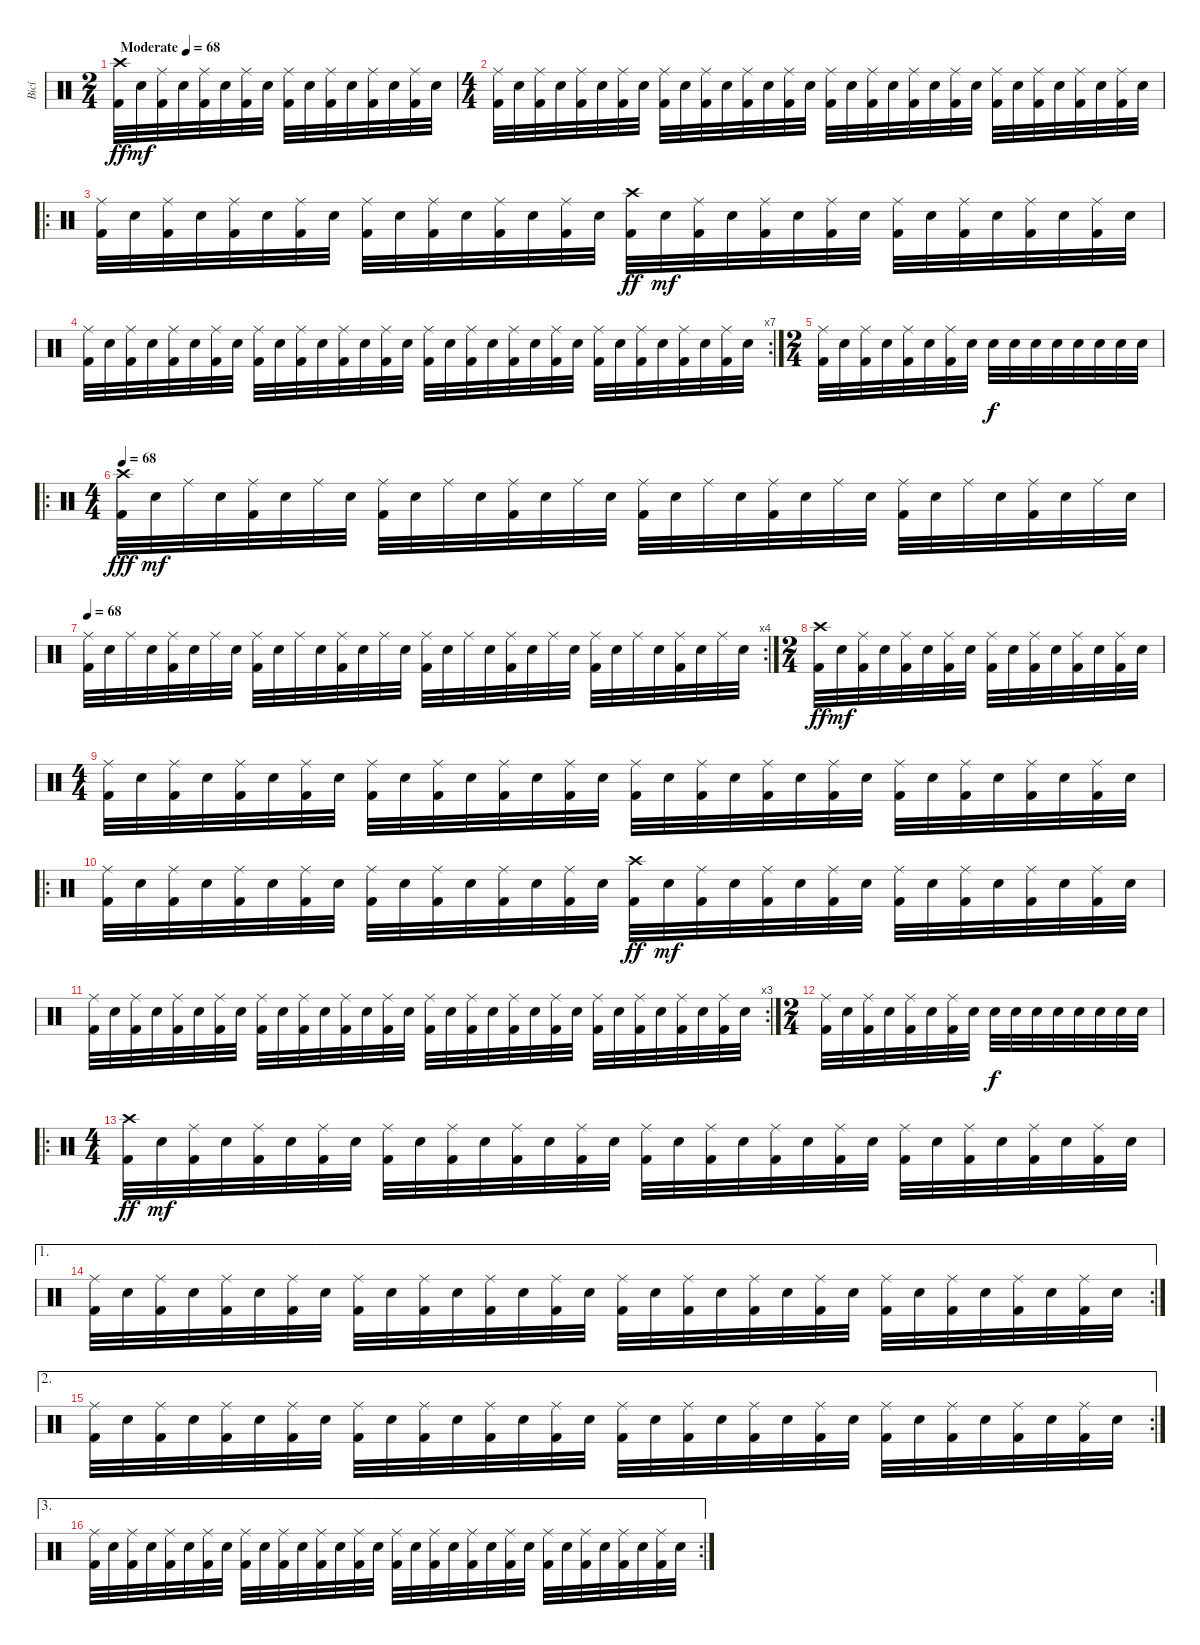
\track ("Bicí" "Bicí") {instrument percussion}
\staff {score}
\articulation defaults
\ts (2 4)
\tempo (68 "Moderate")
\clef neutral
\ks c
("Kick (hit) 2" "Crash high (hit)").32{dy ff} "Electric Snare (hit)".32{dy mf} ("Kick (hit) 2" "Ride (middle)").32 "Electric Snare (hit)".32 ("Kick (hit) 2" "Ride (middle)").32 "Electric Snare (hit)".32 ("Kick (hit) 2" "Ride (middle)").32 "Electric Snare (hit)".32 ("Kick (hit) 2" "Ride (middle)").32 "Electric Snare (hit)".32 ("Kick (hit) 2" "Ride (middle)").32 "Electric Snare (hit)".32 ("Kick (hit) 2" "Ride (middle)").32 "Electric Snare (hit)".32 ("Kick (hit) 2" "Ride (middle)").32 "Electric Snare (hit)".32 |
\ts (4 4)
("Kick (hit) 2" "Ride (middle)").32 "Electric Snare (hit)".32 ("Kick (hit) 2" "Ride (middle)").32 "Electric Snare (hit)".32 ("Kick (hit) 2" "Ride (middle)").32 "Electric Snare (hit)".32 ("Kick (hit) 2" "Ride (middle)").32 "Electric Snare (hit)".32 ("Kick (hit) 2" "Ride (middle)").32 "Electric Snare (hit)".32 ("Kick (hit) 2" "Ride (middle)").32 "Electric Snare (hit)".32 ("Kick (hit) 2" "Ride (middle)").32 "Electric Snare (hit)".32 ("Kick (hit) 2" "Ride (middle)").32 "Electric Snare (hit)".32 ("Kick (hit) 2" "Ride (middle)").32 "Electric Snare (hit)".32 ("Kick (hit) 2" "Ride (middle)").32 "Electric Snare (hit)".32 ("Kick (hit) 2" "Ride (middle)").32 "Electric Snare (hit)".32 ("Kick (hit) 2" "Ride (middle)").32 "Electric Snare (hit)".32 ("Kick (hit) 2" "Ride (middle)").32 "Electric Snare (hit)".32 ("Kick (hit) 2" "Ride (middle)").32 "Electric Snare (hit)".32 ("Kick (hit) 2" "Ride (middle)").32 "Electric Snare (hit)".32 ("Kick (hit) 2" "Ride (middle)").32 "Electric Snare (hit)".32 |
\ro
("Kick (hit) 2" "Ride (middle)").32 "Electric Snare (hit)".32 ("Kick (hit) 2" "Ride (middle)").32 "Electric Snare (hit)".32 ("Kick (hit) 2" "Ride (middle)").32 "Electric Snare (hit)".32 ("Kick (hit) 2" "Ride (middle)").32 "Electric Snare (hit)".32 ("Kick (hit) 2" "Ride (middle)").32 "Electric Snare (hit)".32 ("Kick (hit) 2" "Ride (middle)").32 "Electric Snare (hit)".32 ("Kick (hit) 2" "Ride (middle)").32 "Electric Snare (hit)".32 ("Kick (hit) 2" "Ride (middle)").32 "Electric Snare (hit)".32 ("Kick (hit) 2" "Crash high (hit)").32{dy ff} "Electric Snare (hit)".32{dy mf} ("Kick (hit) 2" "Ride (middle)").32 "Electric Snare (hit)".32 ("Kick (hit) 2" "Ride (middle)").32 "Electric Snare (hit)".32 ("Kick (hit) 2" "Ride (middle)").32 "Electric Snare (hit)".32 ("Kick (hit) 2" "Ride (middle)").32 "Electric Snare (hit)".32 ("Kick (hit) 2" "Ride (middle)").32 "Electric Snare (hit)".32 ("Kick (hit) 2" "Ride (middle)").32 "Electric Snare (hit)".32 ("Kick (hit) 2" "Ride (middle)").32 "Electric Snare (hit)".32 |
\rc 7
("Kick (hit) 2" "Ride (middle)").32 "Electric Snare (hit)".32 ("Kick (hit) 2" "Ride (middle)").32 "Electric Snare (hit)".32 ("Kick (hit) 2" "Ride (middle)").32 "Electric Snare (hit)".32 ("Kick (hit) 2" "Ride (middle)").32 "Electric Snare (hit)".32 ("Kick (hit) 2" "Ride (middle)").32 "Electric Snare (hit)".32 ("Kick (hit) 2" "Ride (middle)").32 "Electric Snare (hit)".32 ("Kick (hit) 2" "Ride (middle)").32 "Electric Snare (hit)".32 ("Kick (hit) 2" "Ride (middle)").32 "Electric Snare (hit)".32 ("Kick (hit) 2" "Ride (middle)").32 "Electric Snare (hit)".32 ("Kick (hit) 2" "Ride (middle)").32 "Electric Snare (hit)".32 ("Kick (hit) 2" "Ride (middle)").32 "Electric Snare (hit)".32 ("Kick (hit) 2" "Ride (middle)").32 "Electric Snare (hit)".32 ("Kick (hit) 2" "Ride (middle)").32 "Electric Snare (hit)".32 ("Kick (hit) 2" "Ride (middle)").32 "Electric Snare (hit)".32 ("Kick (hit) 2" "Ride (middle)").32 "Electric Snare (hit)".32 ("Kick (hit) 2" "Ride (middle)").32 "Electric Snare (hit)".32 |
\ts (2 4)
("Kick (hit) 2" "Ride (middle)").32 "Electric Snare (hit)".32 ("Kick (hit) 2" "Ride (middle)").32 "Electric Snare (hit)".32 ("Kick (hit) 2" "Ride (middle)").32 "Electric Snare (hit)".32 ("Kick (hit) 2" "Ride (middle)").32 "Electric Snare (hit)".32 "Electric Snare (hit)".32{dy f} "Electric Snare (hit)".32 "Electric Snare (hit)".32 "Electric Snare (hit)".32 "Electric Snare (hit)".32 "Electric Snare (hit)".32 "Electric Snare (hit)".32 "Electric Snare (hit)".32 |
\ro
\ts (4 4)
\tempo 68
("Kick (hit) 2" "Crash high (hit)").32{dy fff} "Electric Snare (hit)".32{dy mf} "Ride (middle)".32 "Electric Snare (hit)".32 ("Kick (hit) 2" "Ride (middle)").32 "Electric Snare (hit)".32 "Ride (middle)".32 "Electric Snare (hit)".32 ("Kick (hit) 2" "Ride (middle)").32 "Electric Snare (hit)".32 "Ride (middle)".32 "Electric Snare (hit)".32 ("Kick (hit) 2" "Ride (middle)").32 "Electric Snare (hit)".32 "Ride (middle)".32 "Electric Snare (hit)".32 ("Kick (hit) 2" "Ride (middle)").32 "Electric Snare (hit)".32 "Ride (middle)".32 "Electric Snare (hit)".32 ("Kick (hit) 2" "Ride (middle)").32 "Electric Snare (hit)".32 "Ride (middle)".32 "Electric Snare (hit)".32 ("Kick (hit) 2" "Ride (middle)").32 "Electric Snare (hit)".32 "Ride (middle)".32 "Electric Snare (hit)".32 ("Kick (hit) 2" "Ride (middle)").32 "Electric Snare (hit)".32 "Ride (middle)".32 "Electric Snare (hit)".32 |
\rc 4
\tempo 68
("Kick (hit) 2" "Ride (middle)").32 "Electric Snare (hit)".32 "Ride (middle)".32 "Electric Snare (hit)".32 ("Kick (hit) 2" "Ride (middle)").32 "Electric Snare (hit)".32 "Ride (middle)".32 "Electric Snare (hit)".32 ("Kick (hit) 2" "Ride (middle)").32 "Electric Snare (hit)".32 "Ride (middle)".32 "Electric Snare (hit)".32 ("Kick (hit) 2" "Ride (middle)").32 "Electric Snare (hit)".32 "Ride (middle)".32 "Electric Snare (hit)".32 ("Kick (hit) 2" "Ride (middle)").32 "Electric Snare (hit)".32 "Ride (middle)".32 "Electric Snare (hit)".32 ("Kick (hit) 2" "Ride (middle)").32 "Electric Snare (hit)".32 "Ride (middle)".32 "Electric Snare (hit)".32 ("Kick (hit) 2" "Ride (middle)").32 "Electric Snare (hit)".32 "Ride (middle)".32 "Electric Snare (hit)".32 ("Kick (hit) 2" "Ride (middle)").32 "Electric Snare (hit)".32 "Ride (middle)".32 "Electric Snare (hit)".32 |
\ts (2 4)
("Kick (hit) 2" "Crash high (hit)").32{dy ff} "Electric Snare (hit)".32{dy mf} ("Kick (hit) 2" "Ride (middle)").32 "Electric Snare (hit)".32 ("Kick (hit) 2" "Ride (middle)").32 "Electric Snare (hit)".32 ("Kick (hit) 2" "Ride (middle)").32 "Electric Snare (hit)".32 ("Kick (hit) 2" "Ride (middle)").32 "Electric Snare (hit)".32 ("Kick (hit) 2" "Ride (middle)").32 "Electric Snare (hit)".32 ("Kick (hit) 2" "Ride (middle)").32 "Electric Snare (hit)".32 ("Kick (hit) 2" "Ride (middle)").32 "Electric Snare (hit)".32 |
\ts (4 4)
("Kick (hit) 2" "Ride (middle)").32 "Electric Snare (hit)".32 ("Kick (hit) 2" "Ride (middle)").32 "Electric Snare (hit)".32 ("Kick (hit) 2" "Ride (middle)").32 "Electric Snare (hit)".32 ("Kick (hit) 2" "Ride (middle)").32 "Electric Snare (hit)".32 ("Kick (hit) 2" "Ride (middle)").32 "Electric Snare (hit)".32 ("Kick (hit) 2" "Ride (middle)").32 "Electric Snare (hit)".32 ("Kick (hit) 2" "Ride (middle)").32 "Electric Snare (hit)".32 ("Kick (hit) 2" "Ride (middle)").32 "Electric Snare (hit)".32 ("Kick (hit) 2" "Ride (middle)").32 "Electric Snare (hit)".32 ("Kick (hit) 2" "Ride (middle)").32 "Electric Snare (hit)".32 ("Kick (hit) 2" "Ride (middle)").32 "Electric Snare (hit)".32 ("Kick (hit) 2" "Ride (middle)").32 "Electric Snare (hit)".32 ("Kick (hit) 2" "Ride (middle)").32 "Electric Snare (hit)".32 ("Kick (hit) 2" "Ride (middle)").32 "Electric Snare (hit)".32 ("Kick (hit) 2" "Ride (middle)").32 "Electric Snare (hit)".32 ("Kick (hit) 2" "Ride (middle)").32 "Electric Snare (hit)".32 |
\ro
("Kick (hit) 2" "Ride (middle)").32 "Electric Snare (hit)".32 ("Kick (hit) 2" "Ride (middle)").32 "Electric Snare (hit)".32 ("Kick (hit) 2" "Ride (middle)").32 "Electric Snare (hit)".32 ("Kick (hit) 2" "Ride (middle)").32 "Electric Snare (hit)".32 ("Kick (hit) 2" "Ride (middle)").32 "Electric Snare (hit)".32 ("Kick (hit) 2" "Ride (middle)").32 "Electric Snare (hit)".32 ("Kick (hit) 2" "Ride (middle)").32 "Electric Snare (hit)".32 ("Kick (hit) 2" "Ride (middle)").32 "Electric Snare (hit)".32 ("Kick (hit) 2" "Crash high (hit)").32{dy ff} "Electric Snare (hit)".32{dy mf} ("Kick (hit) 2" "Ride (middle)").32 "Electric Snare (hit)".32 ("Kick (hit) 2" "Ride (middle)").32 "Electric Snare (hit)".32 ("Kick (hit) 2" "Ride (middle)").32 "Electric Snare (hit)".32 ("Kick (hit) 2" "Ride (middle)").32 "Electric Snare (hit)".32 ("Kick (hit) 2" "Ride (middle)").32 "Electric Snare (hit)".32 ("Kick (hit) 2" "Ride (middle)").32 "Electric Snare (hit)".32 ("Kick (hit) 2" "Ride (middle)").32 "Electric Snare (hit)".32 |
\rc 3
("Kick (hit) 2" "Ride (middle)").32 "Electric Snare (hit)".32 ("Kick (hit) 2" "Ride (middle)").32 "Electric Snare (hit)".32 ("Kick (hit) 2" "Ride (middle)").32 "Electric Snare (hit)".32 ("Kick (hit) 2" "Ride (middle)").32 "Electric Snare (hit)".32 ("Kick (hit) 2" "Ride (middle)").32 "Electric Snare (hit)".32 ("Kick (hit) 2" "Ride (middle)").32 "Electric Snare (hit)".32 ("Kick (hit) 2" "Ride (middle)").32 "Electric Snare (hit)".32 ("Kick (hit) 2" "Ride (middle)").32 "Electric Snare (hit)".32 ("Kick (hit) 2" "Ride (middle)").32 "Electric Snare (hit)".32 ("Kick (hit) 2" "Ride (middle)").32 "Electric Snare (hit)".32 ("Kick (hit) 2" "Ride (middle)").32 "Electric Snare (hit)".32 ("Kick (hit) 2" "Ride (middle)").32 "Electric Snare (hit)".32 ("Kick (hit) 2" "Ride (middle)").32 "Electric Snare (hit)".32 ("Kick (hit) 2" "Ride (middle)").32 "Electric Snare (hit)".32 ("Kick (hit) 2" "Ride (middle)").32 "Electric Snare (hit)".32 ("Kick (hit) 2" "Ride (middle)").32 "Electric Snare (hit)".32 |
\ts (2 4)
("Kick (hit) 2" "Ride (middle)").32 "Electric Snare (hit)".32 ("Kick (hit) 2" "Ride (middle)").32 "Electric Snare (hit)".32 ("Kick (hit) 2" "Ride (middle)").32 "Electric Snare (hit)".32 ("Kick (hit) 2" "Ride (middle)").32 "Electric Snare (hit)".32 "Electric Snare (hit)".32{dy f} "Electric Snare (hit)".32 "Electric Snare (hit)".32 "Electric Snare (hit)".32 "Electric Snare (hit)".32 "Electric Snare (hit)".32 "Electric Snare (hit)".32 "Electric Snare (hit)".32 |
\ro
\ts (4 4)
("Kick (hit) 2" "Crash high (hit)").32{dy ff} "Electric Snare (hit)".32{dy mf} ("Kick (hit) 2" "Ride (middle)").32 "Electric Snare (hit)".32 ("Kick (hit) 2" "Ride (middle)").32 "Electric Snare (hit)".32 ("Kick (hit) 2" "Ride (middle)").32 "Electric Snare (hit)".32 ("Kick (hit) 2" "Ride (middle)").32 "Electric Snare (hit)".32 ("Kick (hit) 2" "Ride (middle)").32 "Electric Snare (hit)".32 ("Kick (hit) 2" "Ride (middle)").32 "Electric Snare (hit)".32 ("Kick (hit) 2" "Ride (middle)").32 "Electric Snare (hit)".32 ("Kick (hit) 2" "Ride (middle)").32 "Electric Snare (hit)".32 ("Kick (hit) 2" "Ride (middle)").32 "Electric Snare (hit)".32 ("Kick (hit) 2" "Ride (middle)").32 "Electric Snare (hit)".32 ("Kick (hit) 2" "Ride (middle)").32 "Electric Snare (hit)".32 ("Kick (hit) 2" "Ride (middle)").32 "Electric Snare (hit)".32 ("Kick (hit) 2" "Ride (middle)").32 "Electric Snare (hit)".32 ("Kick (hit) 2" "Ride (middle)").32 "Electric Snare (hit)".32 ("Kick (hit) 2" "Ride (middle)").32 "Electric Snare (hit)".32 |
\ae 1
\rc 2
("Kick (hit) 2" "Ride (middle)").32 "Electric Snare (hit)".32 ("Kick (hit) 2" "Ride (middle)").32 "Electric Snare (hit)".32 ("Kick (hit) 2" "Ride (middle)").32 "Electric Snare (hit)".32 ("Kick (hit) 2" "Ride (middle)").32 "Electric Snare (hit)".32 ("Kick (hit) 2" "Ride (middle)").32 "Electric Snare (hit)".32 ("Kick (hit) 2" "Ride (middle)").32 "Electric Snare (hit)".32 ("Kick (hit) 2" "Ride (middle)").32 "Electric Snare (hit)".32 ("Kick (hit) 2" "Ride (middle)").32 "Electric Snare (hit)".32 ("Kick (hit) 2" "Ride (middle)").32 "Electric Snare (hit)".32 ("Kick (hit) 2" "Ride (middle)").32 "Electric Snare (hit)".32 ("Kick (hit) 2" "Ride (middle)").32 "Electric Snare (hit)".32 ("Kick (hit) 2" "Ride (middle)").32 "Electric Snare (hit)".32 ("Kick (hit) 2" "Ride (middle)").32 "Electric Snare (hit)".32 ("Kick (hit) 2" "Ride (middle)").32 "Electric Snare (hit)".32 ("Kick (hit) 2" "Ride (middle)").32 "Electric Snare (hit)".32 ("Kick (hit) 2" "Ride (middle)").32 "Electric Snare (hit)".32 |
\ae 2
\rc 2
("Kick (hit) 2" "Ride (middle)").32 "Electric Snare (hit)".32 ("Kick (hit) 2" "Ride (middle)").32 "Electric Snare (hit)".32 ("Kick (hit) 2" "Ride (middle)").32 "Electric Snare (hit)".32 ("Kick (hit) 2" "Ride (middle)").32 "Electric Snare (hit)".32 ("Kick (hit) 2" "Ride (middle)").32 "Electric Snare (hit)".32 ("Kick (hit) 2" "Ride (middle)").32 "Electric Snare (hit)".32 ("Kick (hit) 2" "Ride (middle)").32 "Electric Snare (hit)".32 ("Kick (hit) 2" "Ride (middle)").32 "Electric Snare (hit)".32 ("Kick (hit) 2" "Ride (middle)").32 "Electric Snare (hit)".32 ("Kick (hit) 2" "Ride (middle)").32 "Electric Snare (hit)".32 ("Kick (hit) 2" "Ride (middle)").32 "Electric Snare (hit)".32 ("Kick (hit) 2" "Ride (middle)").32 "Electric Snare (hit)".32 ("Kick (hit) 2" "Ride (middle)").32 "Electric Snare (hit)".32 ("Kick (hit) 2" "Ride (middle)").32 "Electric Snare (hit)".32 ("Kick (hit) 2" "Ride (middle)").32 "Electric Snare (hit)".32 ("Kick (hit) 2" "Ride (middle)").32 "Electric Snare (hit)".32 |
\ae 3
\rc 2
("Kick (hit) 2" "Ride (middle)").32 "Electric Snare (hit)".32 ("Kick (hit) 2" "Ride (middle)").32 "Electric Snare (hit)".32 ("Kick (hit) 2" "Ride (middle)").32 "Electric Snare (hit)".32 ("Kick (hit) 2" "Ride (middle)").32 "Electric Snare (hit)".32 ("Kick (hit) 2" "Ride (middle)").32 "Electric Snare (hit)".32 ("Kick (hit) 2" "Ride (middle)").32 "Electric Snare (hit)".32 ("Kick (hit) 2" "Ride (middle)").32 "Electric Snare (hit)".32 ("Kick (hit) 2" "Ride (middle)").32 "Electric Snare (hit)".32 ("Kick (hit) 2" "Ride (middle)").32 "Electric Snare (hit)".32 ("Kick (hit) 2" "Ride (middle)").32 "Electric Snare (hit)".32 ("Kick (hit) 2" "Ride (middle)").32 "Electric Snare (hit)".32 ("Kick (hit) 2" "Ride (middle)").32 "Electric Snare (hit)".32 ("Kick (hit) 2" "Ride (middle)").32 "Electric Snare (hit)".32 ("Kick (hit) 2" "Ride (middle)").32 "Electric Snare (hit)".32 ("Kick (hit) 2" "Ride (middle)").32 "Electric Snare (hit)".32 ("Kick (hit) 2" "Ride (middle)").32 "Electric Snare (hit)".32
